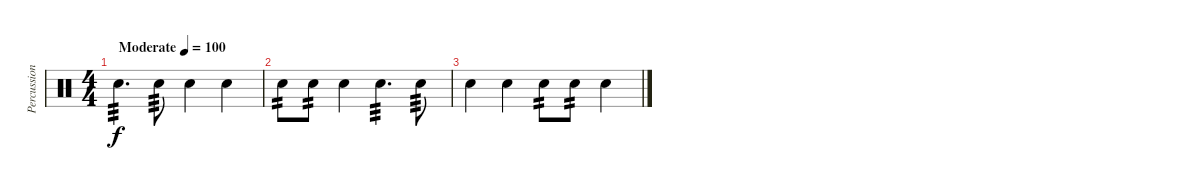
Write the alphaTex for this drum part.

\track ("Percussion" "Percussion") {instrument percussion}
\staff {score}
\articulation defaults
\ts (4 4)
\tempo (100 "Moderate")
\clef neutral
\ks c "Electric Snare (hit)".4{d tp 3 dy f} "Electric Snare (hit)".8{tp 3} "Electric Snare (hit)".4 "Electric Snare (hit)".4
|
"Electric Snare (hit)".8{tp 2} "Electric Snare (hit)".8{tp 2} "Electric Snare (hit)".4 "Electric Snare (hit)".4{d tp 3} "Electric Snare (hit)".8{tp 3} |
"Electric Snare (hit)".4 "Electric Snare (hit)".4 "Electric Snare (hit)".8{tp 2} "Electric Snare (hit)".8{tp 2} "Electric Snare (hit)".4
